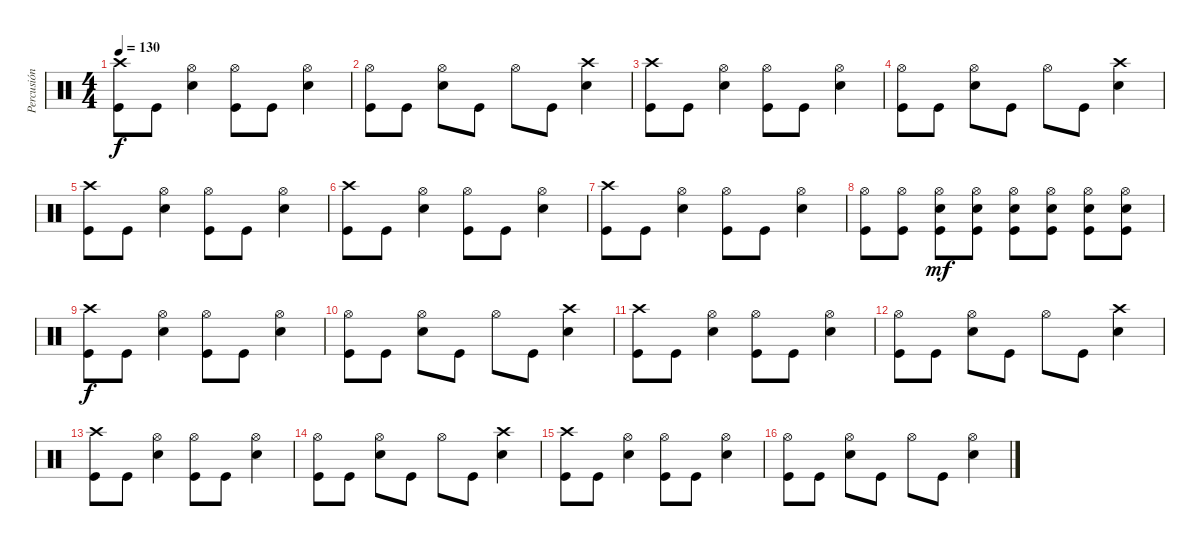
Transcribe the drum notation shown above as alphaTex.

\track ("Percusión" "Percusión") {instrument percussion}
\staff {score}
\articulation defaults
\ts (4 4)
\tempo 130
\clef neutral
\ks c
("Kick (hit)" "Crash high (hit)").8{dy f} "Kick (hit)".8 ("Snare (hit) 2" "Hi-Hat (open)").4 ("Kick (hit)" "Hi-Hat (open)").8 "Kick (hit)".8 ("Snare (hit) 2" "Hi-Hat (open)").4 |
("Kick (hit)" "Hi-Hat (open)").8 "Kick (hit)".8 ("Snare (hit) 2" "Hi-Hat (open)").8 "Kick (hit)".8 "Hi-Hat (open)".8 "Kick (hit)".8 ("Snare (hit) 2" "Crash high (hit)").4 |
("Kick (hit)" "Crash high (hit)").8 "Kick (hit)".8 ("Snare (hit) 2" "Hi-Hat (open)").4 ("Kick (hit)" "Hi-Hat (open)").8 "Kick (hit)".8 ("Snare (hit) 2" "Hi-Hat (open)").4 |
("Kick (hit)" "Hi-Hat (open)").8 "Kick (hit)".8 ("Snare (hit) 2" "Hi-Hat (open)").8 "Kick (hit)".8 "Hi-Hat (open)".8 "Kick (hit)".8 ("Snare (hit) 2" "Crash high (hit)").4 |
("Kick (hit)" "Crash high (hit)").8 "Kick (hit)".8 ("Snare (hit) 2" "Hi-Hat (open)").4 ("Kick (hit)" "Hi-Hat (open)").8 "Kick (hit)".8 ("Snare (hit) 2" "Hi-Hat (open)").4 |
("Kick (hit)" "Crash high (hit)").8 "Kick (hit)".8 ("Snare (hit) 2" "Hi-Hat (open)").4 ("Kick (hit)" "Hi-Hat (open)").8 "Kick (hit)".8 ("Snare (hit) 2" "Hi-Hat (open)").4 |
("Kick (hit)" "Crash high (hit)").8 "Kick (hit)".8 ("Snare (hit) 2" "Hi-Hat (open)").4 ("Kick (hit)" "Hi-Hat (open)").8 "Kick (hit)".8 ("Snare (hit) 2" "Hi-Hat (open)").4 |
("Kick (hit)" "Hi-Hat (open)").8 ("Kick (hit)" "Hi-Hat (open)").8 ("Kick (hit)" "Snare (hit) 2" "Hi-Hat (open)").8{dy mf} ("Kick (hit)" "Snare (hit) 2" "Hi-Hat (open)").8 ("Kick (hit)" "Snare (hit) 2" "Hi-Hat (open)").8 ("Kick (hit)" "Snare (hit) 2" "Hi-Hat (open)").8 ("Kick (hit)" "Snare (hit) 2" "Hi-Hat (open)").8 ("Kick (hit)" "Snare (hit) 2" "Hi-Hat (open)").8 |
("Kick (hit)" "Crash high (hit)").8{dy f} "Kick (hit)".8 ("Snare (hit) 2" "Hi-Hat (open)").4 ("Kick (hit)" "Hi-Hat (open)").8 "Kick (hit)".8 ("Snare (hit) 2" "Hi-Hat (open)").4 |
("Kick (hit)" "Hi-Hat (open)").8 "Kick (hit)".8 ("Snare (hit) 2" "Hi-Hat (open)").8 "Kick (hit)".8 "Hi-Hat (open)".8 "Kick (hit)".8 ("Snare (hit) 2" "Crash high (hit)").4 |
("Kick (hit)" "Crash high (hit)").8 "Kick (hit)".8 ("Snare (hit) 2" "Hi-Hat (open)").4 ("Kick (hit)" "Hi-Hat (open)").8 "Kick (hit)".8 ("Snare (hit) 2" "Hi-Hat (open)").4 |
("Kick (hit)" "Hi-Hat (open)").8 "Kick (hit)".8 ("Snare (hit) 2" "Hi-Hat (open)").8 "Kick (hit)".8 "Hi-Hat (open)".8 "Kick (hit)".8 ("Snare (hit) 2" "Crash high (hit)").4 |
("Kick (hit)" "Crash high (hit)").8 "Kick (hit)".8 ("Snare (hit) 2" "Hi-Hat (open)").4 ("Kick (hit)" "Hi-Hat (open)").8 "Kick (hit)".8 ("Snare (hit) 2" "Hi-Hat (open)").4 |
("Kick (hit)" "Hi-Hat (open)").8 "Kick (hit)".8 ("Snare (hit) 2" "Hi-Hat (open)").8 "Kick (hit)".8 "Hi-Hat (open)".8 "Kick (hit)".8 ("Snare (hit) 2" "Crash high (hit)").4 |
("Kick (hit)" "Crash high (hit)").8 "Kick (hit)".8 ("Snare (hit) 2" "Hi-Hat (open)").4 ("Kick (hit)" "Hi-Hat (open)").8 "Kick (hit)".8 ("Snare (hit) 2" "Hi-Hat (open)").4 |
("Kick (hit)" "Hi-Hat (open)").8 "Kick (hit)".8 ("Snare (hit) 2" "Hi-Hat (open)").8 "Kick (hit)".8 "Hi-Hat (open)".8 "Kick (hit)".8 ("Snare (hit) 2" "Hi-Hat (open)").4
